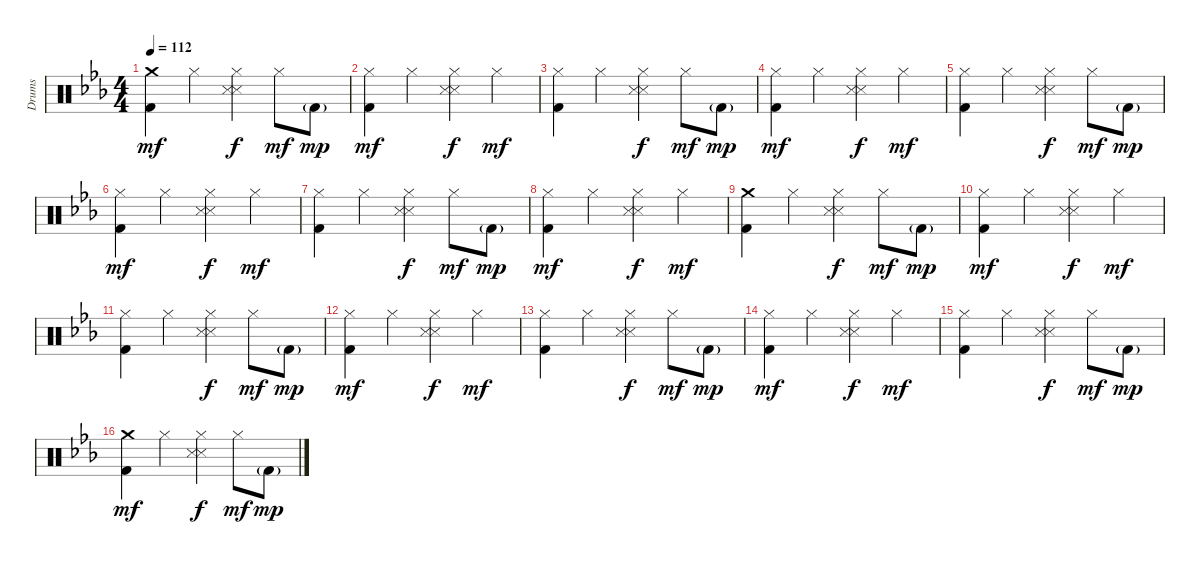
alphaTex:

\track ("Drums" "Drums") {instrument percussion}
\staff {score}
\articulation defaults
\ts (4 4)
\section ("" "")
\tempo 112
\clef neutral
\ks cminor
("Crash medium (hit)" "Kick (hit) 2").4{dy mf} "Hi-Hat (closed)".4 ("Hi-Hat (closed)" "Snare (side stick) 3" "Metronome (hit)").4{dy f} "Hi-Hat (closed)".8{dy mf} "Kick (hit) 2"{g}.8{dy mp} |
("Hi-Hat (closed)" "Kick (hit) 2").4{dy mf} "Hi-Hat (closed)".4 ("Hi-Hat (closed)" "Snare (side stick) 3" "Metronome (hit)").4{dy f} "Hi-Hat (closed)".4{dy mf} |
("Hi-Hat (closed)" "Kick (hit) 2").4 "Hi-Hat (closed)".4 ("Hi-Hat (closed)" "Snare (side stick) 3" "Metronome (hit)").4{dy f} "Hi-Hat (closed)".8{dy mf} "Kick (hit) 2"{g}.8{dy mp} |
("Hi-Hat (closed)" "Kick (hit) 2").4{dy mf} "Hi-Hat (closed)".4 ("Hi-Hat (closed)" "Snare (side stick) 3" "Metronome (hit)").4{dy f} "Hi-Hat (closed)".4{dy mf} |
("Hi-Hat (closed)" "Kick (hit) 2").4 "Hi-Hat (closed)".4 ("Hi-Hat (closed)" "Snare (side stick) 3" "Metronome (hit)").4{dy f} "Hi-Hat (closed)".8{dy mf} "Kick (hit) 2"{g}.8{dy mp} |
("Hi-Hat (closed)" "Kick (hit) 2").4{dy mf} "Hi-Hat (closed)".4 ("Hi-Hat (closed)" "Snare (side stick) 3" "Metronome (hit)").4{dy f} "Hi-Hat (closed)".4{dy mf} |
("Hi-Hat (closed)" "Kick (hit) 2").4 "Hi-Hat (closed)".4 ("Hi-Hat (closed)" "Snare (side stick) 3" "Metronome (hit)").4{dy f} "Hi-Hat (closed)".8{dy mf} "Kick (hit) 2"{g}.8{dy mp} |
("Hi-Hat (closed)" "Kick (hit) 2").4{dy mf} "Hi-Hat (closed)".4 ("Hi-Hat (closed)" "Snare (side stick) 3" "Metronome (hit)").4{dy f} "Hi-Hat (closed)".4{dy mf} |
("Crash medium (hit)" "Kick (hit) 2").4 "Hi-Hat (closed)".4 ("Hi-Hat (closed)" "Snare (side stick) 3" "Metronome (hit)").4{dy f} "Hi-Hat (closed)".8{dy mf} "Kick (hit) 2"{g}.8{dy mp} |
("Hi-Hat (closed)" "Kick (hit) 2").4{dy mf} "Hi-Hat (closed)".4 ("Hi-Hat (closed)" "Snare (side stick) 3" "Metronome (hit)").4{dy f} "Hi-Hat (closed)".4{dy mf} |
("Hi-Hat (closed)" "Kick (hit) 2").4 "Hi-Hat (closed)".4 ("Hi-Hat (closed)" "Snare (side stick) 3" "Metronome (hit)").4{dy f} "Hi-Hat (closed)".8{dy mf} "Kick (hit) 2"{g}.8{dy mp} |
("Hi-Hat (closed)" "Kick (hit) 2").4{dy mf} "Hi-Hat (closed)".4 ("Hi-Hat (closed)" "Snare (side stick) 3" "Metronome (hit)").4{dy f} "Hi-Hat (closed)".4{dy mf} |
("Hi-Hat (closed)" "Kick (hit) 2").4 "Hi-Hat (closed)".4 ("Hi-Hat (closed)" "Snare (side stick) 3" "Metronome (hit)").4{dy f} "Hi-Hat (closed)".8{dy mf} "Kick (hit) 2"{g}.8{dy mp} |
("Hi-Hat (closed)" "Kick (hit) 2").4{dy mf} "Hi-Hat (closed)".4 ("Hi-Hat (closed)" "Snare (side stick) 3" "Metronome (hit)").4{dy f} "Hi-Hat (closed)".4{dy mf} |
("Hi-Hat (closed)" "Kick (hit) 2").4 "Hi-Hat (closed)".4 ("Hi-Hat (closed)" "Snare (side stick) 3" "Metronome (hit)").4{dy f} "Hi-Hat (closed)".8{dy mf} "Kick (hit) 2"{g}.8{dy mp} |
("Crash medium (hit)" "Kick (hit) 2").4{dy mf} "Hi-Hat (closed)".4 ("Hi-Hat (closed)" "Snare (side stick) 3" "Metronome (hit)").4{dy f} "Hi-Hat (closed)".8{dy mf} "Kick (hit) 2"{g}.8{dy mp}
